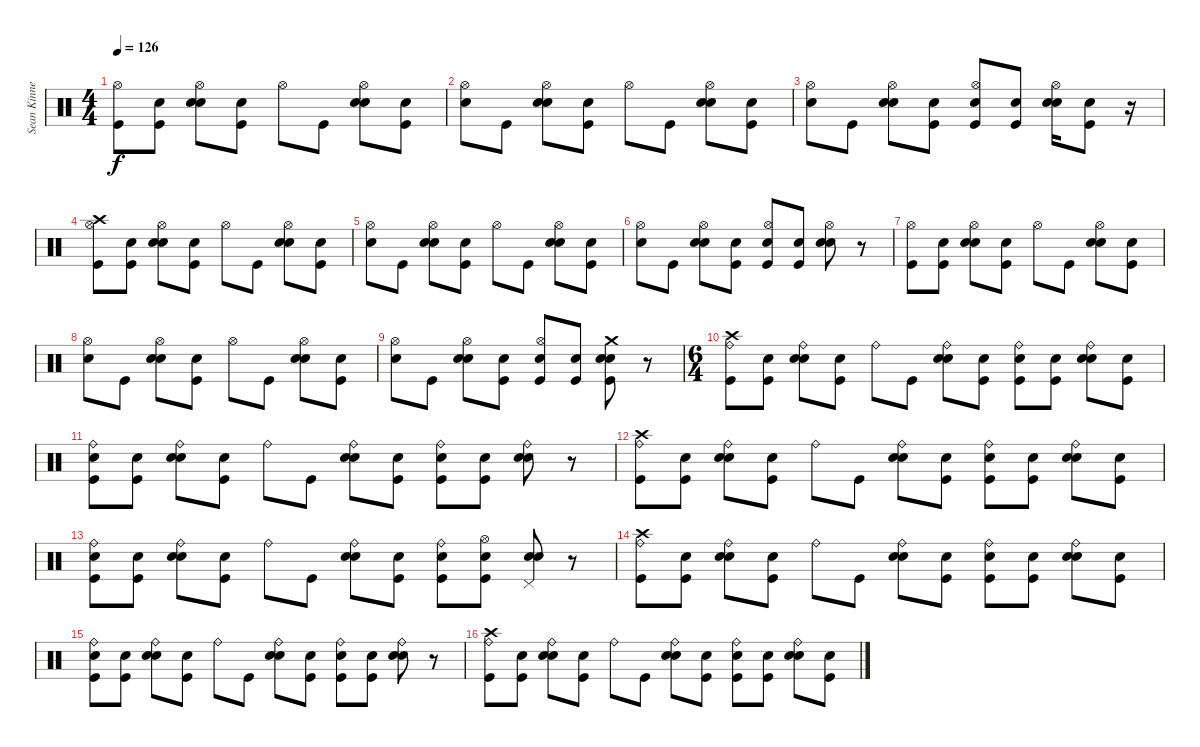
\track ("Sean Kinney (Drums)" "Sean Kinne") {instrument percussion}
\staff {score}
\articulation defaults
\ts (4 4)
\tempo 126
\clef neutral
\ks c
("Kick (hit)" "Hi-Hat (open)").8{dy f} ("Snare (hit)" "Kick (hit)").8 ("Snare (hit)" "Hi-Hat (open)" "Electric Snare (hit)").8 ("Snare (hit)" "Kick (hit)").8 "Hi-Hat (open)".8 "Kick (hit)".8 ("Snare (hit)" "Electric Snare (hit)" "Hi-Hat (open)").8 ("Snare (hit)" "Kick (hit)").8 |
("Snare (hit)" "Hi-Hat (open)").8 "Kick (hit)".8 ("Snare (hit)" "Hi-Hat (open)" "Electric Snare (hit)").8 ("Snare (hit)" "Kick (hit)").8 "Hi-Hat (open)".8 "Kick (hit)".8 ("Snare (hit)" "Hi-Hat (open)" "Electric Snare (hit)").8 ("Snare (hit)" "Kick (hit)").8 |
("Snare (hit)" "Hi-Hat (open)").8 "Kick (hit)".8 ("Snare (hit)" "Hi-Hat (open)" "Electric Snare (hit)").8 ("Snare (hit)" "Kick (hit)").8 ("Snare (hit)" "Kick (hit)" "Hi-Hat (open)").8 ("Snare (hit)" "Kick (hit)").8 ("Snare (hit)" "Hi-Hat (open)" "Electric Snare (hit)").16 ("Snare (hit)" "Kick (hit)").8 r.16 |
("Kick (hit)" "Hi-Hat (open)" "Crash high (hit)").8 ("Snare (hit)" "Kick (hit)").8 ("Snare (hit)" "Hi-Hat (open)" "Electric Snare (hit)").8 ("Snare (hit)" "Kick (hit)").8 "Hi-Hat (open)".8 "Kick (hit)".8 ("Snare (hit)" "Electric Snare (hit)" "Hi-Hat (open)").8 ("Snare (hit)" "Kick (hit)").8 |
("Snare (hit)" "Hi-Hat (open)").8 "Kick (hit)".8 ("Snare (hit)" "Hi-Hat (open)" "Electric Snare (hit)").8 ("Snare (hit)" "Kick (hit)").8 "Hi-Hat (open)".8 "Kick (hit)".8 ("Snare (hit)" "Hi-Hat (open)" "Electric Snare (hit)").8 ("Snare (hit)" "Kick (hit)").8 |
("Snare (hit)" "Hi-Hat (open)").8 "Kick (hit)".8 ("Snare (hit)" "Electric Snare (hit)" "Hi-Hat (open)").8 ("Snare (hit)" "Kick (hit)").8 ("Snare (hit)" "Hi-Hat (open)" "Kick (hit)").8 ("Snare (hit)" "Kick (hit)").8 ("Snare (hit)" "Hi-Hat (open)" "Electric Snare (hit)").8 r.8 |
("Kick (hit)" "Hi-Hat (open)").8 ("Snare (hit)" "Kick (hit)").8 ("Snare (hit)" "Hi-Hat (open)" "Electric Snare (hit)").8 ("Snare (hit)" "Kick (hit)").8 "Hi-Hat (open)".8 "Kick (hit)".8 ("Snare (hit)" "Hi-Hat (open)" "Electric Snare (hit)").8 ("Snare (hit)" "Kick (hit)").8 |
("Snare (hit)" "Hi-Hat (open)").8 "Kick (hit)".8 ("Snare (hit)" "Hi-Hat (open)" "Electric Snare (hit)").8 ("Snare (hit)" "Kick (hit)").8 "Hi-Hat (open)".8 "Kick (hit)".8 ("Snare (hit)" "Hi-Hat (open)" "Electric Snare (hit)").8 ("Snare (hit)" "Kick (hit)").8 |
("Snare (hit)" "Hi-Hat (open)").8 "Kick (hit)".8 ("Snare (hit)" "Hi-Hat (open)" "Electric Snare (hit)").8 ("Snare (hit)" "Kick (hit)").8 ("Snare (hit)" "Hi-Hat (open)" "Kick (hit)").8 ("Snare (hit)" "Kick (hit)").8 ("Snare (hit)" "Electric Snare (hit)" "Kick (hit)" "Crash medium (hit)").8 r.8 |
\ts (6 4)
("Crash high (hit)" "Kick (hit)" "Ride (bell)").8 ("Snare (hit)" "Kick (hit)").8 ("Snare (hit)" "Electric Snare (hit)" "Ride (bell)").8 ("Snare (hit)" "Kick (hit)").8 "Ride (bell)".8 "Kick (hit)".8 ("Snare (hit)" "Electric Snare (hit)" "Ride (bell)").8 ("Snare (hit)" "Kick (hit)").8 ("Snare (hit)" "Ride (bell)" "Kick (hit)").8 ("Snare (hit)" "Kick (hit)").8 ("Snare (hit)" "Electric Snare (hit)" "Ride (bell)").8 ("Snare (hit)" "Kick (hit)").8 |
("Snare (hit)" "Ride (bell)" "Kick (hit)").8 ("Snare (hit)" "Kick (hit)").8 ("Snare (hit)" "Ride (bell)" "Electric Snare (hit)").8 ("Snare (hit)" "Kick (hit)").8 "Ride (bell)".8 "Kick (hit)".8 ("Snare (hit)" "Electric Snare (hit)" "Ride (bell)").8 ("Snare (hit)" "Kick (hit)").8 ("Snare (hit)" "Kick (hit)" "Ride (bell)").8 ("Snare (hit)" "Kick (hit)").8 ("Snare (hit)" "Ride (bell)" "Electric Snare (hit)").8 r.8 |
("Crash high (hit)" "Kick (hit)" "Ride (bell)").8 ("Snare (hit)" "Kick (hit)").8 ("Snare (hit)" "Electric Snare (hit)" "Ride (bell)").8 ("Snare (hit)" "Kick (hit)").8 "Ride (bell)".8 "Kick (hit)".8 ("Snare (hit)" "Ride (bell)" "Electric Snare (hit)").8 ("Snare (hit)" "Kick (hit)").8 ("Snare (hit)" "Kick (hit)" "Ride (bell)").8 ("Snare (hit)" "Kick (hit)").8 ("Snare (hit)" "Electric Snare (hit)" "Ride (bell)").8 ("Snare (hit)" "Kick (hit)").8 |
("Snare (hit)" "Kick (hit)" "Ride (bell)").8 ("Snare (hit)" "Kick (hit)").8 ("Snare (hit)" "Ride (bell)" "Electric Snare (hit)").8 ("Snare (hit)" "Kick (hit)").8 "Ride (bell)".8 "Kick (hit)".8 ("Snare (hit)" "Ride (bell)" "Electric Snare (hit)").8 ("Snare (hit)" "Kick (hit)").8 ("Snare (hit)" "Kick (hit)" "Ride (bell)").8 ("Snare (hit)" "Kick (hit)" "Hi-Hat (open)").8 ("Snare (hit)" "Electric Snare (hit)" "Pedal Hi-Hat (hit)").8 r.8 |
("Crash high (hit)" "Kick (hit)" "Ride (bell)").8 ("Snare (hit)" "Kick (hit)").8 ("Snare (hit)" "Ride (bell)" "Electric Snare (hit)").8 ("Snare (hit)" "Kick (hit)").8 "Ride (bell)".8 "Kick (hit)".8 ("Snare (hit)" "Ride (bell)" "Electric Snare (hit)").8 ("Snare (hit)" "Kick (hit)").8 ("Snare (hit)" "Kick (hit)" "Ride (bell)").8 ("Snare (hit)" "Kick (hit)").8 ("Snare (hit)" "Electric Snare (hit)" "Ride (bell)").8 ("Snare (hit)" "Kick (hit)").8 |
("Snare (hit)" "Ride (bell)" "Kick (hit)").8 ("Snare (hit)" "Kick (hit)").8 ("Snare (hit)" "Electric Snare (hit)" "Ride (bell)").8 ("Snare (hit)" "Kick (hit)").8 "Ride (bell)".8 "Kick (hit)".8 ("Snare (hit)" "Electric Snare (hit)" "Ride (bell)").8 ("Snare (hit)" "Kick (hit)").8 ("Snare (hit)" "Ride (bell)" "Kick (hit)").8 ("Snare (hit)" "Kick (hit)").8 ("Snare (hit)" "Ride (bell)" "Electric Snare (hit)").8 r.8 |
("Ride (bell)" "Crash high (hit)" "Kick (hit)").8 ("Snare (hit)" "Kick (hit)").8 ("Snare (hit)" "Ride (bell)" "Electric Snare (hit)").8 ("Snare (hit)" "Kick (hit)").8 "Ride (bell)".8 "Kick (hit)".8 ("Snare (hit)" "Electric Snare (hit)" "Ride (bell)").8 ("Snare (hit)" "Kick (hit)").8 ("Snare (hit)" "Kick (hit)" "Ride (bell)").8 ("Snare (hit)" "Kick (hit)").8 ("Snare (hit)" "Electric Snare (hit)" "Ride (bell)").8 ("Snare (hit)" "Kick (hit)").8
